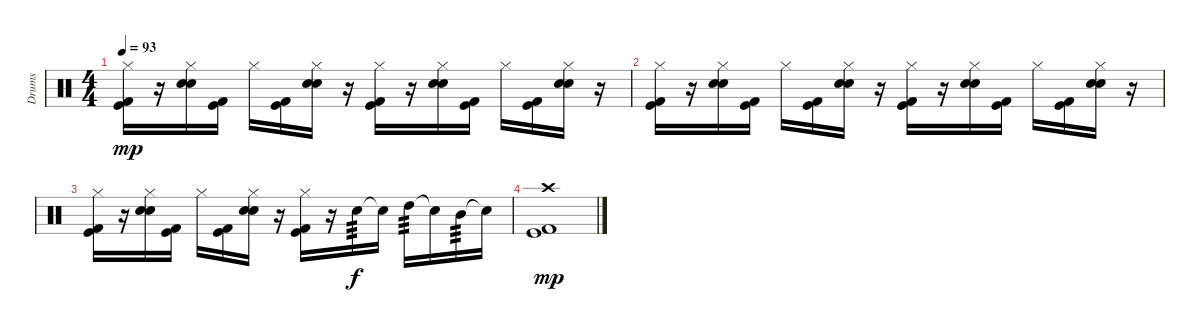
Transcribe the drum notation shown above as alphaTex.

\track ("Drums" "Drums") {instrument percussion}
\staff {score}
\articulation defaults
\ts (4 4)
\tempo 93
\clef neutral
\ks c
("Hi-Hat (closed)" "Kick (hit)" "Kick (hit) 2").16{dy mp} r.16 ("Hi-Hat (closed)" "Electric Snare (hit)" "Snare (hit) 2").16 ("Kick (hit)" "Kick (hit) 2").16 "Hi-Hat (closed)".16 ("Kick (hit)" "Kick (hit) 2").16 ("Hi-Hat (closed)" "Electric Snare (hit)" "Snare (hit) 2").16 r.16 ("Hi-Hat (closed)" "Kick (hit)" "Kick (hit) 2").16 r.16 ("Hi-Hat (closed)" "Electric Snare (hit)" "Snare (hit) 2").16 ("Kick (hit)" "Kick (hit) 2").16 "Hi-Hat (closed)".16 ("Kick (hit)" "Kick (hit) 2").16 ("Hi-Hat (closed)" "Electric Snare (hit)" "Snare (hit) 2").16 r.16 |
("Hi-Hat (closed)" "Kick (hit)" "Kick (hit) 2").16 r.16 ("Hi-Hat (closed)" "Electric Snare (hit)" "Snare (hit) 2").16 ("Kick (hit)" "Kick (hit) 2").16 "Hi-Hat (closed)".16 ("Kick (hit)" "Kick (hit) 2").16 ("Hi-Hat (closed)" "Electric Snare (hit)" "Snare (hit) 2").16 r.16 ("Hi-Hat (closed)" "Kick (hit)" "Kick (hit) 2").16 r.16 ("Hi-Hat (closed)" "Electric Snare (hit)" "Snare (hit) 2").16 ("Kick (hit)" "Kick (hit) 2").16 "Hi-Hat (closed)".16 ("Kick (hit)" "Kick (hit) 2").16 ("Hi-Hat (closed)" "Electric Snare (hit)" "Snare (hit) 2").16 r.16 |
("Hi-Hat (closed)" "Kick (hit)" "Kick (hit) 2").16 r.16 ("Hi-Hat (closed)" "Electric Snare (hit)" "Snare (hit) 2").16 ("Kick (hit)" "Kick (hit) 2").16 "Hi-Hat (closed)".16 ("Kick (hit)" "Kick (hit) 2").16 ("Hi-Hat (closed)" "Electric Snare (hit)" "Snare (hit) 2").16 r.16 ("Hi-Hat (closed)" "Kick (hit)" "Kick (hit) 2").16 r.16 "Electric Snare (hit)".16{tp 3 dy f} "Snare (hit)"{t}.16 "High Tom (hit)".16{tp 3} "Snare (hit)"{t}.16 "Mid Tom (hit)".16{tp 3} "Snare (hit)"{t}.16 |
("Crash high (hit)" "Kick (hit)" "Kick (hit) 2").1{dy mp}
